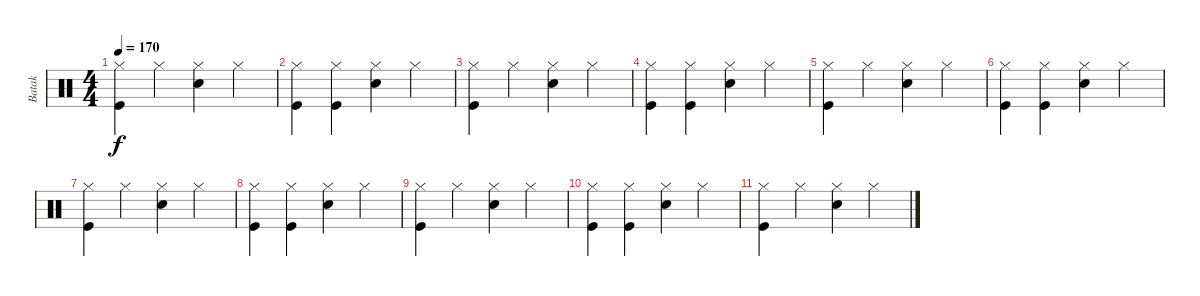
\track ("Batak" "Batak") {instrument percussion}
\staff {score}
\articulation defaults
\ts (4 4)
\tempo 170
\clef neutral
\ks c
("Hi-Hat (closed)" "Kick (hit)").4{dy f} "Hi-Hat (closed)".4 ("Hi-Hat (closed)" "Snare (hit) 2").4 "Hi-Hat (closed)".4 |
("Hi-Hat (closed)" "Kick (hit)").4 ("Hi-Hat (closed)" "Kick (hit)").4 ("Hi-Hat (closed)" "Snare (hit) 2").4 "Hi-Hat (closed)".4 |
("Hi-Hat (closed)" "Kick (hit)").4 "Hi-Hat (closed)".4 ("Hi-Hat (closed)" "Snare (hit) 2").4 "Hi-Hat (closed)".4 |
("Hi-Hat (closed)" "Kick (hit)").4 ("Hi-Hat (closed)" "Kick (hit)").4 ("Hi-Hat (closed)" "Snare (hit) 2").4 "Hi-Hat (closed)".4 |
("Hi-Hat (closed)" "Kick (hit)").4 "Hi-Hat (closed)".4 ("Hi-Hat (closed)" "Snare (hit) 2").4 "Hi-Hat (closed)".4 |
("Hi-Hat (closed)" "Kick (hit)").4 ("Hi-Hat (closed)" "Kick (hit)").4 ("Hi-Hat (closed)" "Snare (hit) 2").4 "Hi-Hat (closed)".4 |
("Hi-Hat (closed)" "Kick (hit)").4 "Hi-Hat (closed)".4 ("Hi-Hat (closed)" "Snare (hit) 2").4 "Hi-Hat (closed)".4 |
("Hi-Hat (closed)" "Kick (hit)").4 ("Hi-Hat (closed)" "Kick (hit)").4 ("Hi-Hat (closed)" "Snare (hit) 2").4 "Hi-Hat (closed)".4 |
("Hi-Hat (closed)" "Kick (hit)").4 "Hi-Hat (closed)".4 ("Hi-Hat (closed)" "Snare (hit) 2").4 "Hi-Hat (closed)".4 |
("Hi-Hat (closed)" "Kick (hit)").4 ("Hi-Hat (closed)" "Kick (hit)").4 ("Hi-Hat (closed)" "Snare (hit) 2").4 "Hi-Hat (closed)".4 |
("Hi-Hat (closed)" "Kick (hit)").4 "Hi-Hat (closed)".4 ("Hi-Hat (closed)" "Snare (hit) 2").4 "Hi-Hat (closed)".4
